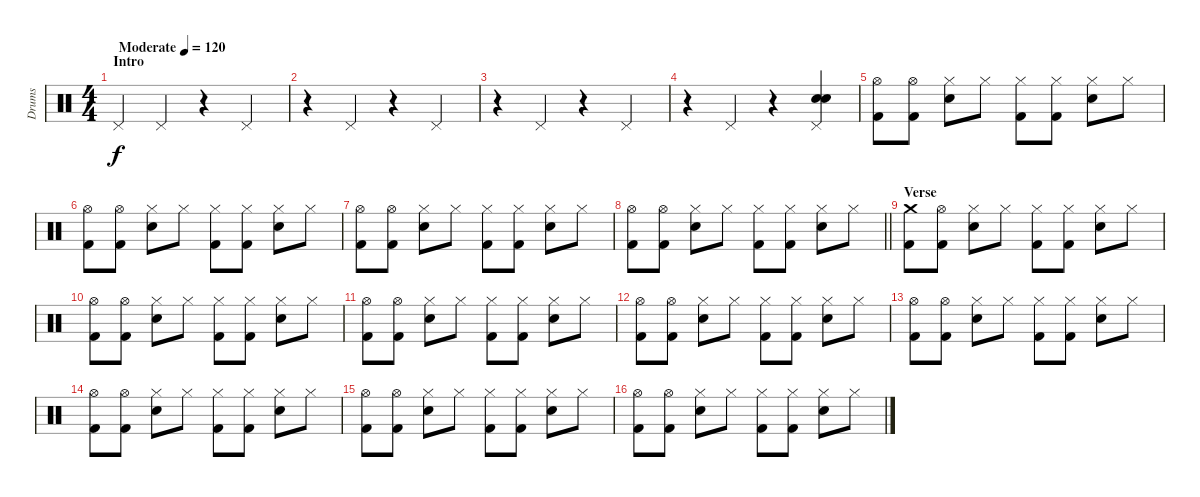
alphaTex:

\track ("Drums" "Drums") {instrument percussion}
\staff {score}
\articulation defaults
\ts (4 4)
\section ("" "Intro")
\tempo (120 "Moderate")
\clef neutral
\ks c "Pedal Hi-Hat (hit)".4{dy f} "Pedal Hi-Hat (hit)".4
r.4 "Pedal Hi-Hat (hit)".4 |
r.4 "Pedal Hi-Hat (hit)".4 r.4 "Pedal Hi-Hat (hit)".4 |
r.4 "Pedal Hi-Hat (hit)".4 r.4 "Pedal Hi-Hat (hit)".4 |
r.4 "Pedal Hi-Hat (hit)".4 r.4 ("Pedal Hi-Hat (hit)" "Electric Snare (hit)" "Electric Snare (hit)").4 |
("Hi-Hat (open)" "Kick (hit) 2").8 ("Hi-Hat (open)" "Kick (hit) 2").8 ("Hi-Hat (closed)" "Electric Snare (hit)").8 "Hi-Hat (closed)".8 ("Hi-Hat (closed)" "Kick (hit) 2").8 ("Hi-Hat (closed)" "Kick (hit) 2").8 ("Hi-Hat (closed)" "Electric Snare (hit)").8 "Hi-Hat (closed)".8 |
("Hi-Hat (open)" "Kick (hit) 2").8 ("Hi-Hat (open)" "Kick (hit) 2").8 ("Hi-Hat (closed)" "Electric Snare (hit)").8 "Hi-Hat (closed)".8 ("Hi-Hat (closed)" "Kick (hit) 2").8 ("Hi-Hat (closed)" "Kick (hit) 2").8 ("Hi-Hat (closed)" "Electric Snare (hit)").8 "Hi-Hat (closed)".8 |
("Hi-Hat (open)" "Kick (hit) 2").8 ("Hi-Hat (open)" "Kick (hit) 2").8 ("Hi-Hat (closed)" "Electric Snare (hit)").8 "Hi-Hat (closed)".8 ("Hi-Hat (closed)" "Kick (hit) 2").8 ("Hi-Hat (closed)" "Kick (hit) 2").8 ("Hi-Hat (closed)" "Electric Snare (hit)").8 "Hi-Hat (closed)".8 |
\barLineRight lightlight
("Hi-Hat (open)" "Kick (hit) 2").8 ("Hi-Hat (open)" "Kick (hit) 2").8 ("Hi-Hat (closed)" "Electric Snare (hit)").8 "Hi-Hat (closed)".8 ("Hi-Hat (closed)" "Kick (hit) 2").8 ("Hi-Hat (closed)" "Kick (hit) 2").8 ("Hi-Hat (closed)" "Electric Snare (hit)").8 "Hi-Hat (closed)".8 |
\section ("" "Verse")
("Crash medium (hit)" "Kick (hit) 2").8 ("Hi-Hat (open)" "Kick (hit) 2").8 ("Hi-Hat (closed)" "Electric Snare (hit)").8 "Hi-Hat (closed)".8 ("Hi-Hat (closed)" "Kick (hit) 2").8 ("Hi-Hat (closed)" "Kick (hit) 2").8 ("Hi-Hat (closed)" "Electric Snare (hit)").8 "Hi-Hat (closed)".8 |
("Hi-Hat (open)" "Kick (hit) 2").8 ("Hi-Hat (open)" "Kick (hit) 2").8 ("Hi-Hat (closed)" "Electric Snare (hit)").8 "Hi-Hat (closed)".8 ("Hi-Hat (closed)" "Kick (hit) 2").8 ("Hi-Hat (closed)" "Kick (hit) 2").8 ("Hi-Hat (closed)" "Electric Snare (hit)").8 "Hi-Hat (closed)".8 |
("Hi-Hat (open)" "Kick (hit) 2").8 ("Hi-Hat (open)" "Kick (hit) 2").8 ("Hi-Hat (closed)" "Electric Snare (hit)").8 "Hi-Hat (closed)".8 ("Hi-Hat (closed)" "Kick (hit) 2").8 ("Hi-Hat (closed)" "Kick (hit) 2").8 ("Hi-Hat (closed)" "Electric Snare (hit)").8 "Hi-Hat (closed)".8 |
("Hi-Hat (open)" "Kick (hit) 2").8 ("Hi-Hat (open)" "Kick (hit) 2").8 ("Hi-Hat (closed)" "Electric Snare (hit)").8 "Hi-Hat (closed)".8 ("Hi-Hat (closed)" "Kick (hit) 2").8 ("Hi-Hat (closed)" "Kick (hit) 2").8 ("Hi-Hat (closed)" "Electric Snare (hit)").8 "Hi-Hat (closed)".8 |
("Hi-Hat (open)" "Kick (hit) 2").8 ("Hi-Hat (open)" "Kick (hit) 2").8 ("Hi-Hat (closed)" "Electric Snare (hit)").8 "Hi-Hat (closed)".8 ("Hi-Hat (closed)" "Kick (hit) 2").8 ("Hi-Hat (closed)" "Kick (hit) 2").8 ("Hi-Hat (closed)" "Electric Snare (hit)").8 "Hi-Hat (closed)".8 |
("Hi-Hat (open)" "Kick (hit) 2").8 ("Hi-Hat (open)" "Kick (hit) 2").8 ("Hi-Hat (closed)" "Electric Snare (hit)").8 "Hi-Hat (closed)".8 ("Hi-Hat (closed)" "Kick (hit) 2").8 ("Hi-Hat (closed)" "Kick (hit) 2").8 ("Hi-Hat (closed)" "Electric Snare (hit)").8 "Hi-Hat (closed)".8 |
("Hi-Hat (open)" "Kick (hit) 2").8 ("Hi-Hat (open)" "Kick (hit) 2").8 ("Hi-Hat (closed)" "Electric Snare (hit)").8 "Hi-Hat (closed)".8 ("Hi-Hat (closed)" "Kick (hit) 2").8 ("Hi-Hat (closed)" "Kick (hit) 2").8 ("Hi-Hat (closed)" "Electric Snare (hit)").8 "Hi-Hat (closed)".8 |
("Hi-Hat (open)" "Kick (hit) 2").8 ("Hi-Hat (open)" "Kick (hit) 2").8 ("Hi-Hat (closed)" "Electric Snare (hit)").8 "Hi-Hat (closed)".8 ("Hi-Hat (closed)" "Kick (hit) 2").8 ("Hi-Hat (closed)" "Kick (hit) 2").8 ("Hi-Hat (closed)" "Electric Snare (hit)").8 "Hi-Hat (closed)".8
